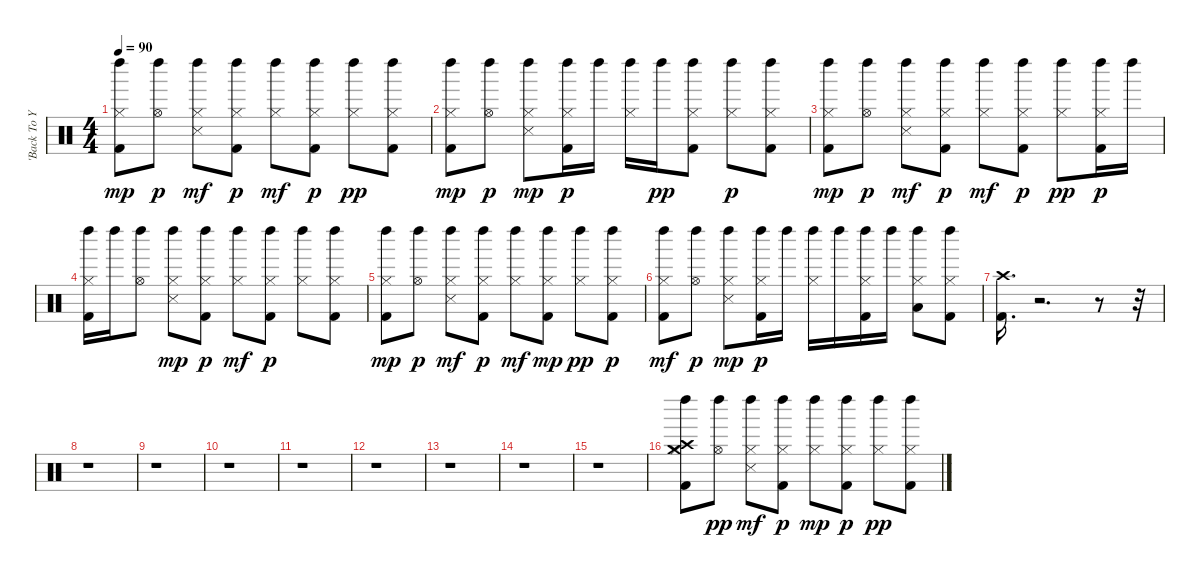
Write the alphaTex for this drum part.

\track ("'Back To Your Heart'" "'Back To Y") {instrument percussion}
\staff {score}
\articulation defaults
\ts (4 4)
\tempo 90
\clef neutral
\ks c
("Kick (hit) 2" "Hi-Hat (closed)" "Left Maraca (hit)").8{dy mp} ("Hi-Hat (open)" "Left Maraca (hit)").8{dy p} ("Snare (side stick) 3" "Hi-Hat (closed)" "Left Maraca (hit)").8{dy mf} ("Kick (hit) 2" "Hi-Hat (closed)" "Left Maraca (hit)").8{dy p} ("Hi-Hat (closed)" "Left Maraca (hit)").8{dy mf} ("Kick (hit) 2" "Hi-Hat (closed)" "Left Maraca (hit)").8{dy p} ("Hi-Hat (closed)" "Left Maraca (hit)").8{dy pp} ("Kick (hit) 2" "Hi-Hat (closed)" "Left Maraca (hit)").8 |
("Kick (hit) 2" "Hi-Hat (closed)" "Left Maraca (hit)").8{dy mp} ("Hi-Hat (open)" "Left Maraca (hit)").8{dy p} ("Snare (side stick) 3" "Hi-Hat (closed)" "Left Maraca (hit)").8{dy mp} ("Kick (hit) 2" "Hi-Hat (closed)" "Left Maraca (hit)").16{dy p} "Left Maraca (hit)".16 ("Hi-Hat (closed)" "Left Maraca (hit)").16 "Left Maraca (hit)".16{dy pp} ("Kick (hit) 2" "Hi-Hat (closed)" "Left Maraca (hit)").8 ("Hi-Hat (closed)" "Left Maraca (hit)").8{dy p} ("Kick (hit) 2" "Hi-Hat (closed)" "Left Maraca (hit)").8 |
("Kick (hit) 2" "Hi-Hat (closed)" "Left Maraca (hit)").8{dy mp} ("Hi-Hat (open)" "Left Maraca (hit)").8{dy p} ("Snare (side stick) 3" "Hi-Hat (closed)" "Left Maraca (hit)").8{dy mf} ("Kick (hit) 2" "Hi-Hat (closed)" "Left Maraca (hit)").8{dy p} ("Hi-Hat (closed)" "Left Maraca (hit)").8{dy mf} ("Kick (hit) 2" "Hi-Hat (closed)" "Left Maraca (hit)").8{dy p} ("Hi-Hat (closed)" "Left Maraca (hit)").8{dy pp} ("Kick (hit) 2" "Hi-Hat (closed)" "Left Maraca (hit)").16{dy p} "Left Maraca (hit)".16 |
("Kick (hit) 2" "Hi-Hat (closed)" "Left Maraca (hit)").16 "Left Maraca (hit)".16 ("Hi-Hat (open)" "Left Maraca (hit)").8 ("Snare (side stick) 3" "Hi-Hat (closed)" "Left Maraca (hit)").8{dy mp} ("Kick (hit) 2" "Hi-Hat (closed)" "Left Maraca (hit)").8{dy p} ("Hi-Hat (closed)" "Left Maraca (hit)").8{dy mf} ("Kick (hit) 2" "Hi-Hat (closed)" "Left Maraca (hit)").8{dy p} ("Hi-Hat (closed)" "Left Maraca (hit)").8 ("Kick (hit) 2" "Hi-Hat (closed)" "Left Maraca (hit)").8 |
("Kick (hit) 2" "Hi-Hat (closed)" "Left Maraca (hit)").8{dy mp} ("Hi-Hat (open)" "Left Maraca (hit)").8{dy p} ("Snare (side stick) 3" "Hi-Hat (closed)" "Left Maraca (hit)").8{dy mf} ("Kick (hit) 2" "Hi-Hat (closed)" "Left Maraca (hit)").8{dy p} ("Hi-Hat (closed)" "Left Maraca (hit)").8{dy mf} ("Kick (hit) 2" "Hi-Hat (closed)" "Left Maraca (hit)").8{dy mp} ("Hi-Hat (closed)" "Left Maraca (hit)").8{dy pp} ("Kick (hit) 2" "Hi-Hat (closed)" "Left Maraca (hit)").8{dy p} |
("Kick (hit) 2" "Hi-Hat (closed)" "Left Maraca (hit)").8{dy mf} ("Hi-Hat (open)" "Left Maraca (hit)").8{dy p} ("Snare (side stick) 3" "Hi-Hat (closed)" "Left Maraca (hit)").8{dy mp} ("Kick (hit) 2" "Hi-Hat (closed)" "Left Maraca (hit)").16{dy p} "Left Maraca (hit)".16 ("Hi-Hat (closed)" "Left Maraca (hit)").16 "Left Maraca (hit)".16 ("Kick (hit) 2" "Hi-Hat (closed)" "Left Maraca (hit)").16 "Left Maraca (hit)".16 ("Low Floor Tom (hit)" "Hi-Hat (closed)" "Left Maraca (hit)").8 ("Kick (hit) 2" "Hi-Hat (closed)" "Left Maraca (hit)").8 |
("Kick (hit) 2" "Crash high (hit)").16{d} r.2{d} r.8 r.32 |
r.1 |
r.1 |
r.1 |
r.1 |
r.1 |
r.1 |
r.1 |
r.1 |
("Kick (hit) 2" "Hi-Hat (closed)" "Crash high (hit)" "Crash medium (hit)" "Left Maraca (hit)").8 ("Hi-Hat (open)" "Left Maraca (hit)").8{dy pp} ("Snare (side stick) 3" "Hi-Hat (closed)" "Left Maraca (hit)").8{dy mf} ("Kick (hit) 2" "Hi-Hat (closed)" "Left Maraca (hit)").8{dy p} ("Hi-Hat (closed)" "Left Maraca (hit)").8{dy mp} ("Kick (hit) 2" "Hi-Hat (closed)" "Left Maraca (hit)").8{dy p} ("Hi-Hat (closed)" "Left Maraca (hit)").8{dy pp} ("Kick (hit) 2" "Hi-Hat (closed)" "Left Maraca (hit)").8
